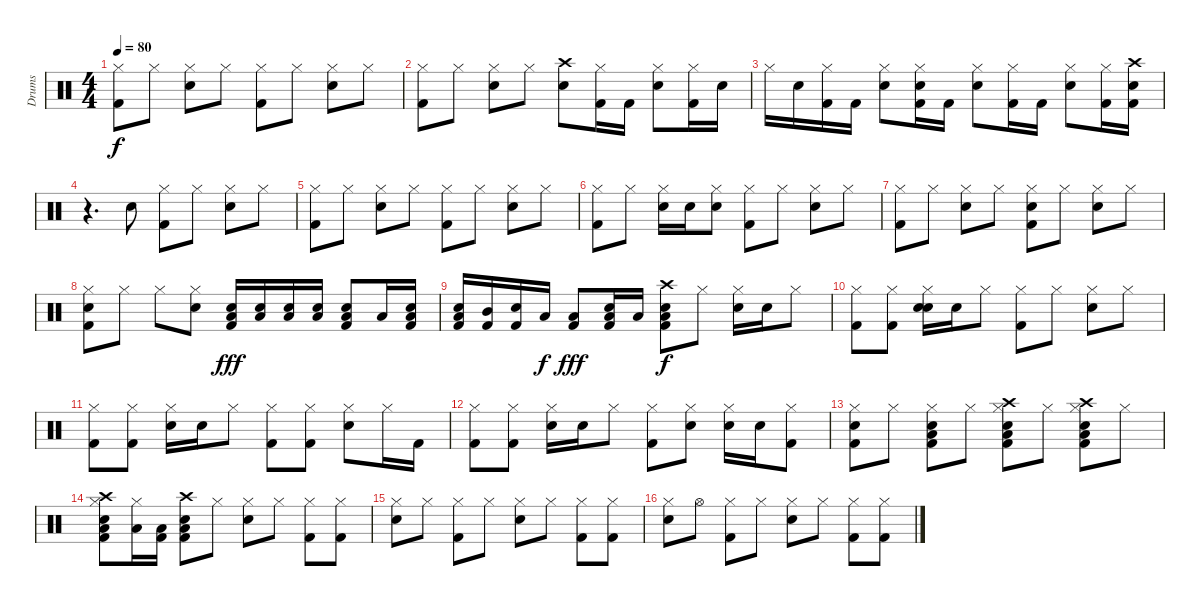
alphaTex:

\track ("Drums" "Drums") {instrument percussion}
\staff {score}
\articulation defaults
\ts (4 4)
\tempo 80
\clef neutral
\ks c
("Hi-Hat (closed)" "Kick (hit) 2").8{dy f} "Hi-Hat (closed)".8 ("Hi-Hat (closed)" "Snare (hit) 2").8 "Hi-Hat (closed)".8 ("Hi-Hat (closed)" "Kick (hit) 2").8 "Hi-Hat (closed)".8 ("Hi-Hat (closed)" "Snare (hit) 2").8 "Hi-Hat (closed)".8 |
("Hi-Hat (closed)" "Kick (hit) 2").8 "Hi-Hat (closed)".8 ("Hi-Hat (closed)" "Snare (hit) 2").8 "Hi-Hat (closed)".8 ("Snare (hit) 2" "Crash high (hit)").8 ("Kick (hit) 2" "Hi-Hat (closed)").16 "Kick (hit) 2".16 ("Hi-Hat (closed)" "Snare (hit) 2").8 ("Kick (hit) 2" "Hi-Hat (closed)").16 "Snare (hit) 2".16 |
"Hi-Hat (closed)".16 "Snare (hit) 2".16 ("Kick (hit) 2" "Hi-Hat (closed)").16 "Kick (hit) 2".16 ("Hi-Hat (closed)" "Snare (hit) 2").8 ("Snare (hit) 2" "Kick (hit) 2" "Hi-Hat (closed)").16 "Kick (hit) 2".16 ("Hi-Hat (closed)" "Snare (hit) 2").8 ("Kick (hit) 2" "Hi-Hat (closed)").16 "Kick (hit) 2".16 ("Hi-Hat (closed)" "Snare (hit) 2").8 ("Kick (hit) 2" "Hi-Hat (closed)").16 ("Crash high (hit)" "Snare (hit) 2" "Kick (hit) 2").16 |
r.4{d} "Snare (hit) 2".8 ("Hi-Hat (closed)" "Kick (hit) 2").8 "Hi-Hat (closed)".8 ("Hi-Hat (closed)" "Snare (hit) 2").8 "Hi-Hat (closed)".8 |
("Hi-Hat (closed)" "Kick (hit) 2").8 "Hi-Hat (closed)".8 ("Hi-Hat (closed)" "Snare (hit) 2").8 "Hi-Hat (closed)".8 ("Hi-Hat (closed)" "Kick (hit) 2").8 "Hi-Hat (closed)".8 ("Hi-Hat (closed)" "Snare (hit) 2").8 "Hi-Hat (closed)".8 |
("Hi-Hat (closed)" "Kick (hit) 2").8 "Hi-Hat (closed)".8 ("Hi-Hat (closed)" "Snare (hit) 2").16 "Snare (hit) 2".16 ("Snare (hit) 2" "Hi-Hat (closed)").8 ("Hi-Hat (closed)" "Kick (hit) 2").8 "Hi-Hat (closed)".8 ("Hi-Hat (closed)" "Snare (hit) 2").8 "Hi-Hat (closed)".8 |
("Hi-Hat (closed)" "Kick (hit) 2").8 "Hi-Hat (closed)".8 ("Hi-Hat (closed)" "Snare (hit) 2").8 "Hi-Hat (closed)".8 ("Snare (hit) 2" "Hi-Hat (closed)" "Kick (hit) 2").8 "Hi-Hat (closed)".8 ("Hi-Hat (closed)" "Snare (hit) 2").8 "Hi-Hat (closed)".8 |
("Snare (hit) 2" "Hi-Hat (closed)" "Kick (hit) 2").8 "Hi-Hat (closed)".8 "Hi-Hat (closed)".8 ("Snare (hit) 2" "Hi-Hat (closed)").8 ("Low Floor Tom (hit)" "Snare (hit) 2" "Kick (hit) 2").16{dy fff} ("Low Floor Tom (hit)" "Snare (hit) 2").16 ("Low Floor Tom (hit)" "Snare (hit) 2").16 ("Low Floor Tom (hit)" "Snare (hit) 2").16 ("Low Floor Tom (hit)" "Snare (hit) 2" "Kick (hit) 2").8 "Low Tom (hit)".16 ("Low Floor Tom (hit)" "Snare (hit) 2" "Kick (hit) 2").16 |
("Low Floor Tom (hit)" "Kick (hit) 2" "Snare (hit) 2").16 ("Kick (hit) 2" "Mid Tom (hit)").16 ("Kick (hit) 2" "Snare (hit) 2").16 "Low Floor Tom (hit)".16{dy f} ("Kick (hit) 2" "Low Floor Tom (hit)").8{dy fff} ("Low Floor Tom (hit)" "Kick (hit) 2" "Snare (hit) 2").16 "Low Tom (hit)".16 ("Snare (hit) 2" "Low Floor Tom (hit)" "Kick (hit) 2" "Crash high (hit)").8{dy f} "Hi-Hat (closed)".8 ("Hi-Hat (closed)" "Snare (hit) 2").16 "Snare (hit) 2".16 "Hi-Hat (closed)".8 |
("Hi-Hat (closed)" "Kick (hit) 2").8 ("Hi-Hat (closed)" "Kick (hit) 2").8 ("Hi-Hat (closed)" "Snare (hit) 2" "Snare (hit) 2").16 "Snare (hit) 2".16 "Hi-Hat (closed)".8 ("Kick (hit) 2" "Hi-Hat (closed)").8 "Hi-Hat (closed)".8 ("Hi-Hat (closed)" "Snare (hit) 2").8 "Hi-Hat (closed)".8 |
("Hi-Hat (closed)" "Kick (hit) 2").8 ("Hi-Hat (closed)" "Kick (hit) 2").8 ("Hi-Hat (closed)" "Snare (hit) 2").16 "Snare (hit) 2".16 "Hi-Hat (closed)".8 ("Kick (hit) 2" "Hi-Hat (closed)").8 ("Kick (hit) 2" "Hi-Hat (closed)").8 ("Hi-Hat (closed)" "Snare (hit) 2").8 "Hi-Hat (closed)".16 "Kick (hit) 2".16 |
("Hi-Hat (closed)" "Kick (hit) 2").8 ("Hi-Hat (closed)" "Kick (hit) 2").8 ("Hi-Hat (closed)" "Snare (hit) 2").16 "Snare (hit) 2".16 "Hi-Hat (closed)".8 ("Kick (hit) 2" "Hi-Hat (closed)").8 ("Hi-Hat (closed)" "Snare (hit) 2").8 ("Hi-Hat (closed)" "Snare (hit) 2").16 "Snare (hit) 2".16 ("Kick (hit) 2" "Hi-Hat (closed)").8 |
("Snare (hit) 2" "Hi-Hat (closed)" "Kick (hit) 2").8 "Hi-Hat (closed)".8 ("Kick (hit) 2" "Hi-Hat (closed)" "Snare (hit) 2" "Low Floor Tom (hit)").8 "Hi-Hat (closed)".8 ("Crash high (hit)" "Snare (hit) 2" "Kick (hit) 2" "Hi-Hat (closed)" "Low Floor Tom (hit)").8 "Hi-Hat (closed)".8 ("Crash high (hit)" "Kick (hit) 2" "Hi-Hat (closed)" "Snare (hit) 2" "Low Floor Tom (hit)").8 "Hi-Hat (closed)".8 |
("Crash high (hit)" "Snare (hit) 2" "Hi-Hat (closed)" "Kick (hit) 2" "Low Floor Tom (hit)").8 ("Low Floor Tom (hit)" "Hi-Hat (closed)").16 ("Low Floor Tom (hit)" "Kick (hit) 2").16 ("Low Floor Tom (hit)" "Crash high (hit)" "Kick (hit) 2" "Snare (hit) 2").8 "Hi-Hat (closed)".8 ("Hi-Hat (closed)" "Snare (hit) 2").8 "Hi-Hat (closed)".8 ("Hi-Hat (closed)" "Kick (hit) 2").8 ("Kick (hit) 2" "Hi-Hat (closed)").8 |
("Snare (hit) 2" "Hi-Hat (closed)").8 "Hi-Hat (closed)".8 ("Hi-Hat (closed)" "Kick (hit) 2").8 "Hi-Hat (closed)".8 ("Snare (hit) 2" "Hi-Hat (closed)").8 "Hi-Hat (closed)".8 ("Hi-Hat (closed)" "Kick (hit) 2").8 ("Kick (hit) 2" "Hi-Hat (closed)").8 |
("Hi-Hat (closed)" "Snare (hit) 2").8 "Hi-Hat (open)".8 ("Kick (hit) 2" "Hi-Hat (closed)").8 "Hi-Hat (closed)".8 ("Hi-Hat (closed)" "Snare (hit) 2").8 "Hi-Hat (closed)".8 ("Hi-Hat (closed)" "Kick (hit) 2").8 ("Hi-Hat (closed)" "Kick (hit) 2").8
